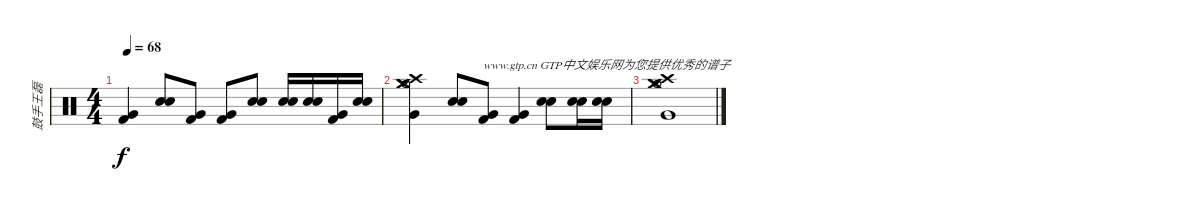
\track ("鼓手王磊" "鼓手王磊") {instrument percussion}
\staff {score}
\articulation defaults
\ts (4 4)
\tempo 68
\clef neutral
\ks c
("Very Low Tom (hit)" "Kick (hit) 2").4{dy f} ("Electric Snare (hit)" "Electric Snare (hit)").8 ("Very Low Tom (hit)" "Kick (hit) 2").8 ("Very Low Tom (hit)" "Kick (hit) 2").8 ("Electric Snare (hit)" "Electric Snare (hit)").8 ("Electric Snare (hit)" "Electric Snare (hit)").16 ("Electric Snare (hit)" "Electric Snare (hit)").16 ("Very Low Tom (hit)" "Kick (hit) 2").16 ("Electric Snare (hit)" "Electric Snare (hit)").16 |
("Crash medium (hit)" "Crash medium (hit)" "Very Low Tom (hit)" "Crash high (hit)" "Hi-Hat (open)" "Hi-Hat (open)").4 ("Electric Snare (hit)" "Electric Snare (hit)").8 ("Very Low Tom (hit)" "Kick (hit) 2").8{txt "www.gtp.cn GTP中文娱乐网为您提供优秀的谱子"} ("Very Low Tom (hit)" "Kick (hit) 2").4 ("Electric Snare (hit)" "Electric Snare (hit)").8 ("Electric Snare (hit)" "Electric Snare (hit)").16 ("Electric Snare (hit)" "Electric Snare (hit)").16 |
("Crash medium (hit)" "Crash medium (hit)" "Very Low Tom (hit)" "Crash high (hit)" "Hi-Hat (open)" "Hi-Hat (open)").1
